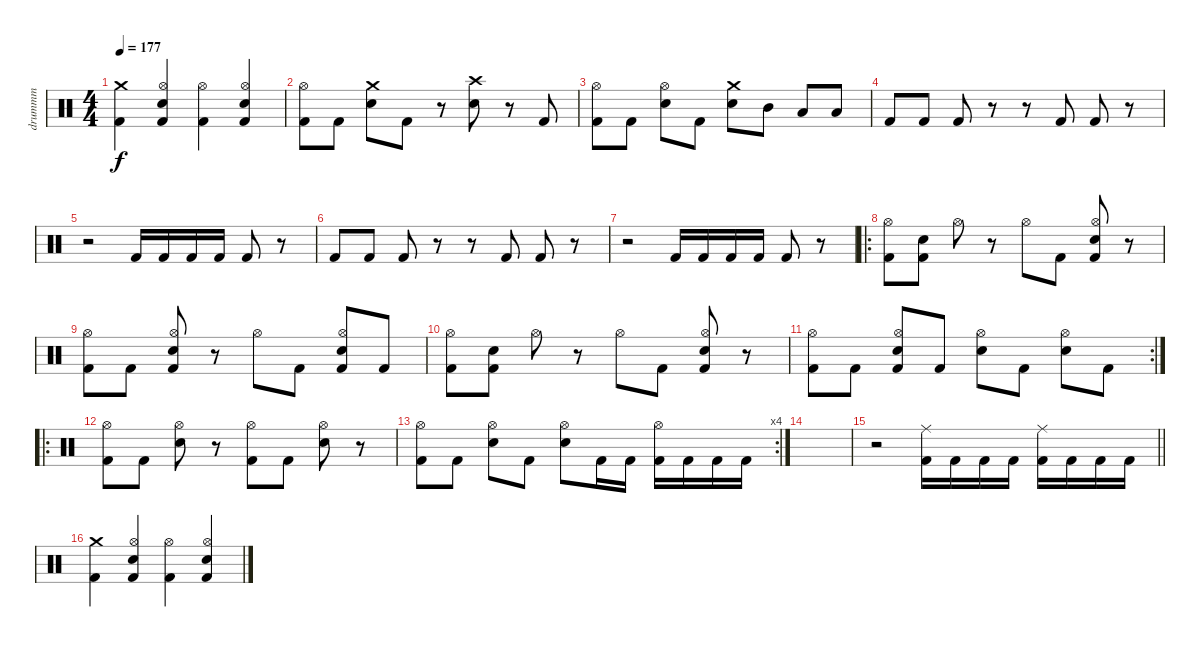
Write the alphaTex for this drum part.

\track ("drummm" "drummm") {instrument percussion}
\staff {score}
\articulation defaults
\ts (4 4)
\tempo 177
\clef neutral
\ks c
("Crash medium (hit)" "Kick (hit) 2").4{dy f} ("Hi-Hat (open)" "Snare (hit) 2" "Kick (hit) 2").4 ("Hi-Hat (open)" "Kick (hit) 2").4 ("Hi-Hat (open)" "Snare (hit) 2" "Kick (hit) 2").4 |
("Hi-Hat (open)" "Kick (hit) 2").8 "Kick (hit) 2".8 ("Crash medium (hit)" "Snare (hit) 2").8 "Kick (hit) 2".8 r.8 ("Crash high (hit)" "Snare (hit) 2").8 r.8 "Kick (hit) 2".8 |
("Hi-Hat (open)" "Kick (hit) 2").8 "Kick (hit) 2".8 ("Hi-Hat (open)" "Snare (hit) 2").8 "Kick (hit) 2".8 ("Crash medium (hit)" "Snare (hit) 2").8 "Mid Tom (hit)".8 "Low Tom (hit)".8 "Low Floor Tom (hit)".8 |
"Kick (hit) 2".8 "Kick (hit) 2".8 "Kick (hit) 2".8 r.8 r.8 "Kick (hit) 2".8 "Kick (hit) 2".8 r.8 |
r.2 "Kick (hit) 2".16 "Kick (hit) 2".16 "Kick (hit) 2".16 "Kick (hit) 2".16 "Kick (hit) 2".8 r.8 |
"Kick (hit) 2".8 "Kick (hit) 2".8 "Kick (hit) 2".8 r.8 r.8 "Kick (hit) 2".8 "Kick (hit) 2".8 r.8 |
r.2 "Kick (hit) 2".16 "Kick (hit) 2".16 "Kick (hit) 2".16 "Kick (hit) 2".16 "Kick (hit) 2".8 r.8 |
\ro
("Hi-Hat (open)" "Kick (hit) 2").8 ("Snare (hit) 2" "Kick (hit) 2").8 "Hi-Hat (open)".8 r.8 "Hi-Hat (open)".8 "Kick (hit) 2".8 ("Hi-Hat (open)" "Snare (hit) 2" "Kick (hit) 2").8 r.8 |
("Hi-Hat (open)" "Kick (hit) 2").8 "Kick (hit) 2".8 ("Hi-Hat (open)" "Snare (hit) 2" "Kick (hit) 2").8 r.8 "Hi-Hat (open)".8 "Kick (hit) 2".8 ("Hi-Hat (open)" "Snare (hit) 2" "Kick (hit) 2").8 "Kick (hit) 2".8 |
("Hi-Hat (open)" "Kick (hit) 2").8 ("Snare (hit) 2" "Kick (hit) 2").8 "Hi-Hat (open)".8 r.8 "Hi-Hat (open)".8 "Kick (hit) 2".8 ("Hi-Hat (open)" "Snare (hit) 2" "Kick (hit) 2").8 r.8 |
\rc 2
("Hi-Hat (open)" "Kick (hit) 2").8 "Kick (hit) 2".8 ("Hi-Hat (open)" "Snare (hit) 2" "Kick (hit) 2").8 "Kick (hit) 2".8 ("Hi-Hat (open)" "Snare (hit) 2").8 "Kick (hit) 2".8 ("Hi-Hat (open)" "Snare (hit) 2").8 "Kick (hit) 2".8 |
\ro
("Hi-Hat (open)" "Kick (hit) 2").8 "Kick (hit) 2".8 ("Hi-Hat (open)" "Snare (hit) 2").8 r.8 ("Hi-Hat (open)" "Kick (hit) 2").8 "Kick (hit) 2".8 ("Hi-Hat (open)" "Snare (hit) 2").8 r.8 |
\rc 4
("Hi-Hat (open)" "Kick (hit) 2").8 "Kick (hit) 2".8 ("Hi-Hat (open)" "Snare (hit) 2").8 "Kick (hit) 2".8 ("Hi-Hat (open)" "Snare (hit) 2").8 "Kick (hit) 2".16 "Kick (hit) 2".16 ("Hi-Hat (open)" "Kick (hit) 2").16 "Kick (hit) 2".16 "Kick (hit) 2".16 "Kick (hit) 2".16 |
|
\barLineRight lightlight
r.2 ("Ride (middle)" "Kick (hit) 2").16 "Kick (hit) 2".16 "Kick (hit) 2".16 "Kick (hit) 2".16 ("Ride (middle)" "Kick (hit) 2").16 "Kick (hit) 2".16 "Kick (hit) 2".16 "Kick (hit) 2".16 |
("Crash medium (hit)" "Kick (hit) 2").4 ("Hi-Hat (open)" "Snare (hit) 2" "Kick (hit) 2").4 ("Hi-Hat (open)" "Kick (hit) 2").4 ("Hi-Hat (open)" "Snare (hit) 2" "Kick (hit) 2").4
